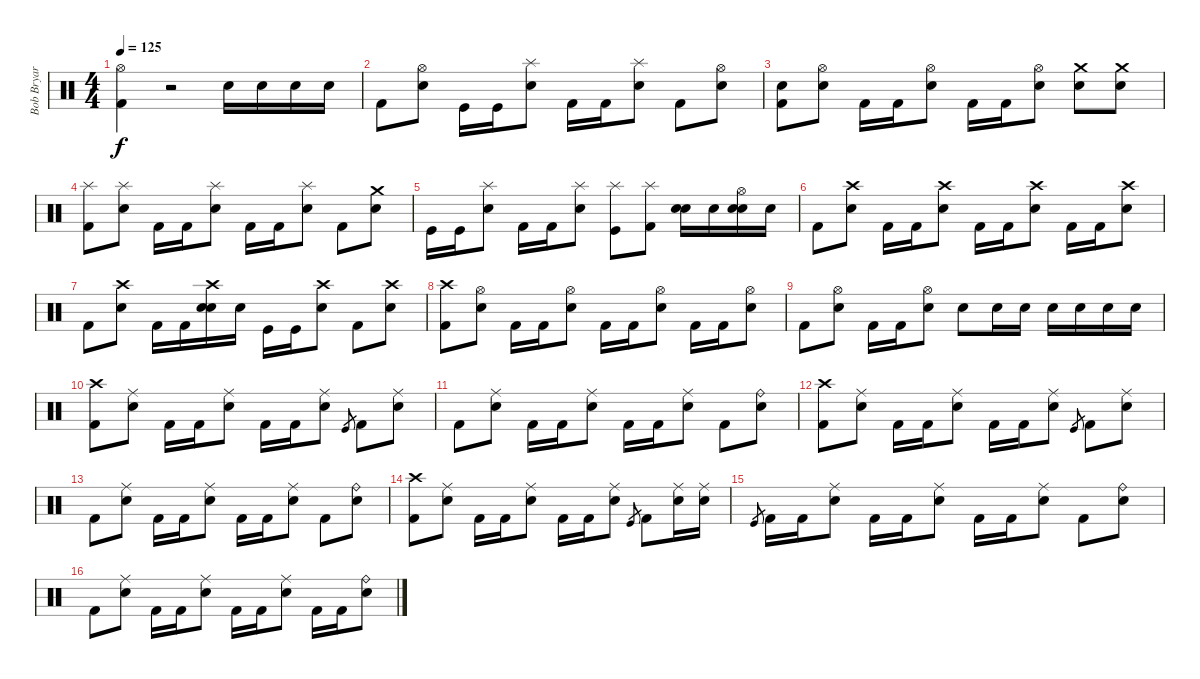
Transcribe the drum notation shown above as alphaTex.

\track ("Bob Bryar" "Bob Bryar") {instrument percussion}
\staff {score}
\articulation defaults
\ts (4 4)
\tempo 125
\clef neutral
\ks c
("Hi-Hat (open)" "Kick (hit) 2").4{dy f} r.2 "Snare (hit) 2".16 "Snare (hit) 2".16 "Snare (hit) 2".16 "Snare (hit) 2".16 |
"Kick (hit) 2".8 ("Hi-Hat (open)" "Snare (hit) 2").8 "Kick (hit)".16 "Kick (hit)".16 ("Splash (hit)" "Snare (hit) 2").8 "Kick (hit) 2".16 "Kick (hit) 2".16 ("Splash (hit)" "Snare (hit) 2").8 "Kick (hit) 2".8 ("Hi-Hat (open)" "Snare (hit) 2").8 |
("Kick (hit) 2" "Electric Snare (hit)").8 ("Hi-Hat (open)" "Snare (hit) 2").8 "Kick (hit) 2".16 "Kick (hit) 2".16 ("Hi-Hat (open)" "Snare (hit) 2").8 "Kick (hit) 2".16 "Kick (hit) 2".16 ("Hi-Hat (open)" "Snare (hit) 2").8 ("Crash medium (hit)" "Snare (hit) 2").8 ("Crash medium (hit)" "Snare (hit) 2").8 |
("Splash (hit)" "Kick (hit) 2").8 ("Splash (hit)" "Snare (hit) 2").8 "Kick (hit) 2".16 "Kick (hit) 2".16 ("Splash (hit)" "Snare (hit) 2").8 "Kick (hit) 2".16 "Kick (hit) 2".16 ("Splash (hit)" "Snare (hit) 2").8 "Kick (hit) 2".8 ("Crash medium (hit)" "Snare (hit) 2").8 |
"Kick (hit)".16 "Kick (hit)".16 ("Splash (hit)" "Snare (hit) 2").8 "Kick (hit) 2".16 "Kick (hit) 2".16 ("Splash (hit)" "Snare (hit) 2").8 ("Splash (hit)" "Kick (hit)").8 ("Splash (hit)" "Kick (hit) 2").8 ("Snare (hit) 2" "Electric Snare (hit)").16 "Snare (hit) 2".16 ("Hi-Hat (open)" "Snare (hit) 2" "Electric Snare (hit)").16 "Snare (hit) 2".16 |
"Kick (hit) 2".8 ("Crash high (hit)" "Snare (hit) 2").8 "Kick (hit) 2".16 "Kick (hit) 2".16 ("Crash high (hit)" "Snare (hit) 2").8 "Kick (hit) 2".16 "Kick (hit) 2".16 ("Crash high (hit)" "Snare (hit) 2").8 "Kick (hit) 2".16 "Kick (hit) 2".16 ("Crash high (hit)" "Snare (hit) 2").8 |
"Kick (hit) 2".8 ("Crash high (hit)" "Electric Snare (hit)").8 "Kick (hit) 2".16 "Kick (hit) 2".16 ("Crash high (hit)" "Electric Snare (hit)" "Snare (hit) 2").16 "Snare (hit) 2".16 "Kick (hit)".16 "Kick (hit)".16 ("Crash high (hit)" "Snare (hit) 2").8 "Kick (hit) 2".8 ("Crash high (hit)" "Snare (hit) 2").8 |
("Crash high (hit)" "Kick (hit) 2").8 ("Snare (hit) 2" "Hi-Hat (open)").8 "Kick (hit) 2".16 "Kick (hit) 2".16 ("Hi-Hat (open)" "Snare (hit) 2").8 "Kick (hit) 2".16 "Kick (hit) 2".16 ("Hi-Hat (open)" "Snare (hit) 2").8 "Kick (hit) 2".16 "Kick (hit) 2".16 ("Hi-Hat (open)" "Snare (hit) 2").8 |
"Kick (hit) 2".8 ("Hi-Hat (open)" "Snare (hit) 2").8 "Kick (hit) 2".16 "Kick (hit) 2".16 ("Hi-Hat (open)" "Snare (hit) 2").8 "Snare (hit) 2".8 "Snare (hit) 2".16 "Snare (hit) 2".16 "Snare (hit) 2".16 "Snare (hit) 2".16 "Snare (hit) 2".16 "Snare (hit) 2".16 |
("Crash high (hit)" "Kick (hit) 2").8 ("Ride (middle)" "Snare (hit) 2").8 "Kick (hit) 2".16 "Kick (hit) 2".16 ("Ride (middle)" "Snare (hit) 2").8 "Kick (hit) 2".16 "Kick (hit) 2".16 ("Ride (middle)" "Snare (hit) 2").8 "Kick (hit)".8{gr} "Kick (hit) 2".8 ("Ride (middle)" "Snare (hit) 2").8 |
"Kick (hit) 2".8 ("Ride (middle)" "Snare (hit) 2").8 "Kick (hit) 2".16 "Kick (hit) 2".16 ("Ride (middle)" "Snare (hit) 2").8 "Kick (hit) 2".16 "Kick (hit) 2".16 ("Ride (middle)" "Snare (hit) 2").8 "Kick (hit) 2".8 ("Ride (bell)" "Snare (hit) 2").8 |
("Crash high (hit)" "Kick (hit) 2").8 ("Ride (middle)" "Snare (hit) 2").8 "Kick (hit) 2".16 "Kick (hit) 2".16 ("Ride (middle)" "Snare (hit) 2").8 "Kick (hit) 2".16 "Kick (hit) 2".16 ("Ride (middle)" "Snare (hit) 2").8 "Kick (hit)".8{gr} "Kick (hit) 2".8 ("Ride (middle)" "Snare (hit) 2").8 |
"Kick (hit) 2".8 ("Ride (middle)" "Snare (hit) 2").8 "Kick (hit) 2".16 "Kick (hit) 2".16 ("Ride (middle)" "Snare (hit) 2").8 "Kick (hit) 2".16 "Kick (hit) 2".16 ("Ride (middle)" "Snare (hit) 2").8 "Kick (hit) 2".8 ("Ride (bell)" "Snare (hit) 2").8 |
("Crash high (hit)" "Kick (hit) 2").8 ("Ride (middle)" "Snare (hit) 2").8 "Kick (hit) 2".16 "Kick (hit) 2".16 ("Ride (middle)" "Snare (hit) 2").8 "Kick (hit) 2".16 "Kick (hit) 2".16 ("Ride (middle)" "Snare (hit) 2").8 "Kick (hit)".8{gr} "Kick (hit) 2".8 ("Ride (middle)" "Snare (hit) 2").16 ("Ride (middle)" "Snare (hit) 2").16 |
"Kick (hit)".8{gr} "Kick (hit) 2".16 "Kick (hit) 2".16 ("Ride (middle)" "Snare (hit) 2").8 "Kick (hit) 2".16 "Kick (hit) 2".16 ("Ride (middle)" "Snare (hit) 2").8 "Kick (hit) 2".16 "Kick (hit) 2".16 ("Ride (middle)" "Snare (hit) 2").8 "Kick (hit) 2".8 ("Ride (bell)" "Snare (hit) 2").8 |
"Kick (hit) 2".8 ("Ride (middle)" "Snare (hit) 2").8 "Kick (hit) 2".16 "Kick (hit) 2".16 ("Ride (middle)" "Snare (hit) 2").8 "Kick (hit) 2".16 "Kick (hit) 2".16 ("Ride (middle)" "Snare (hit) 2").8 "Kick (hit) 2".16 "Kick (hit) 2".16 ("Ride (bell)" "Snare (hit) 2").8
